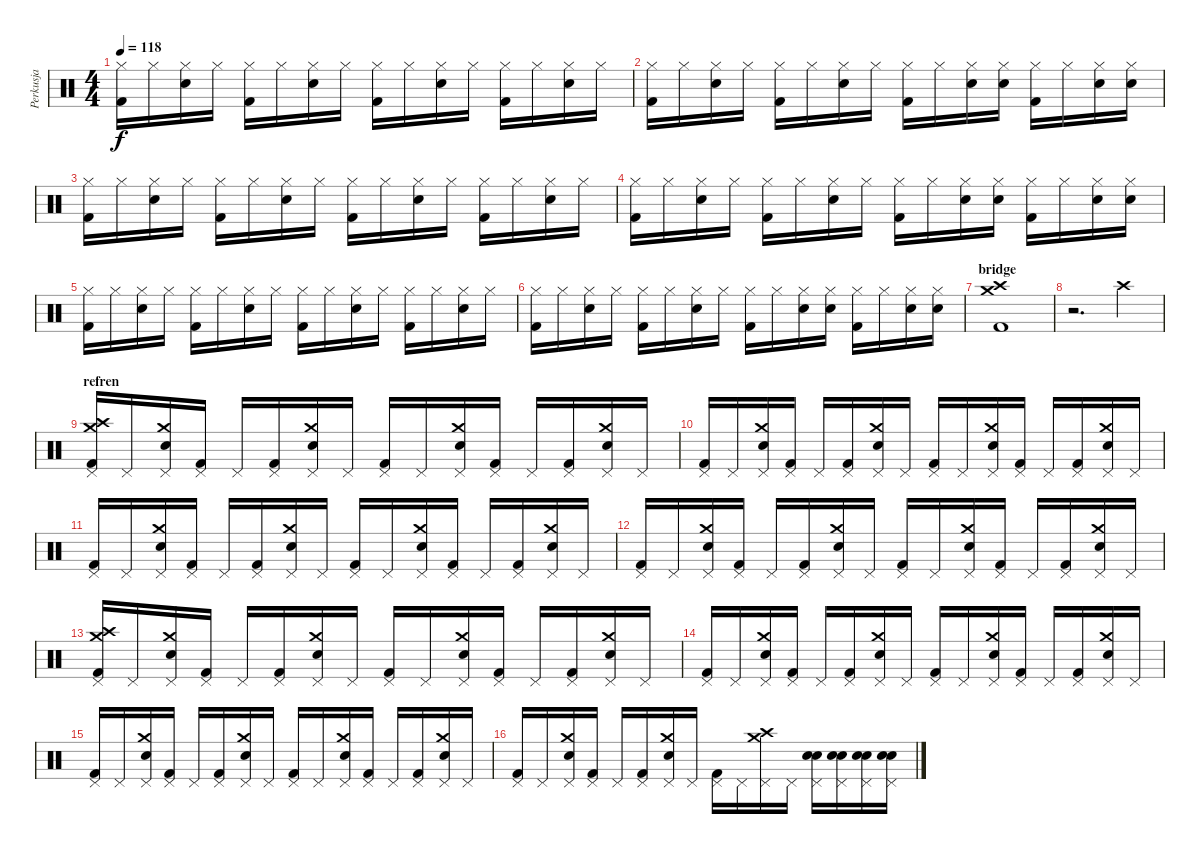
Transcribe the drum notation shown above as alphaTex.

\track ("Perkusja" "Perkusja") {instrument percussion}
\staff {score}
\articulation defaults
\ts (4 4)
\tempo 118
\clef neutral
\ks c
("Kick (hit) 2" "Hi-Hat (closed)").16{dy f} "Hi-Hat (closed)".16 ("Electric Snare (hit)" "Hi-Hat (closed)").16 "Hi-Hat (closed)".16 ("Kick (hit) 2" "Hi-Hat (closed)").16 "Hi-Hat (closed)".16 ("Electric Snare (hit)" "Hi-Hat (closed)").16 "Hi-Hat (closed)".16 ("Kick (hit) 2" "Hi-Hat (closed)").16 "Hi-Hat (closed)".16 ("Electric Snare (hit)" "Hi-Hat (closed)").16 "Hi-Hat (closed)".16 ("Kick (hit) 2" "Hi-Hat (closed)").16 "Hi-Hat (closed)".16 ("Electric Snare (hit)" "Hi-Hat (closed)").16 "Hi-Hat (closed)".16 |
("Kick (hit) 2" "Hi-Hat (closed)").16 "Hi-Hat (closed)".16 ("Electric Snare (hit)" "Hi-Hat (closed)").16 "Hi-Hat (closed)".16 ("Kick (hit) 2" "Hi-Hat (closed)").16 "Hi-Hat (closed)".16 ("Electric Snare (hit)" "Hi-Hat (closed)").16 "Hi-Hat (closed)".16 ("Kick (hit) 2" "Hi-Hat (closed)").16 "Hi-Hat (closed)".16 ("Electric Snare (hit)" "Hi-Hat (closed)").16 ("Electric Snare (hit)" "Hi-Hat (closed)").16 ("Kick (hit) 2" "Hi-Hat (closed)").16 "Hi-Hat (closed)".16 ("Electric Snare (hit)" "Hi-Hat (closed)").16 ("Electric Snare (hit)" "Hi-Hat (closed)").16 |
("Kick (hit) 2" "Hi-Hat (closed)").16 "Hi-Hat (closed)".16 ("Electric Snare (hit)" "Hi-Hat (closed)").16 "Hi-Hat (closed)".16 ("Kick (hit) 2" "Hi-Hat (closed)").16 "Hi-Hat (closed)".16 ("Electric Snare (hit)" "Hi-Hat (closed)").16 "Hi-Hat (closed)".16 ("Kick (hit) 2" "Hi-Hat (closed)").16 "Hi-Hat (closed)".16 ("Electric Snare (hit)" "Hi-Hat (closed)").16 "Hi-Hat (closed)".16 ("Kick (hit) 2" "Hi-Hat (closed)").16 "Hi-Hat (closed)".16 ("Electric Snare (hit)" "Hi-Hat (closed)").16 "Hi-Hat (closed)".16 |
("Kick (hit) 2" "Hi-Hat (closed)").16 "Hi-Hat (closed)".16 ("Electric Snare (hit)" "Hi-Hat (closed)").16 "Hi-Hat (closed)".16 ("Kick (hit) 2" "Hi-Hat (closed)").16 "Hi-Hat (closed)".16 ("Electric Snare (hit)" "Hi-Hat (closed)").16 "Hi-Hat (closed)".16 ("Kick (hit) 2" "Hi-Hat (closed)").16 "Hi-Hat (closed)".16 ("Electric Snare (hit)" "Hi-Hat (closed)").16 ("Electric Snare (hit)" "Hi-Hat (closed)").16 ("Kick (hit) 2" "Hi-Hat (closed)").16 "Hi-Hat (closed)".16 ("Electric Snare (hit)" "Hi-Hat (closed)").16 ("Electric Snare (hit)" "Hi-Hat (closed)").16 |
("Kick (hit) 2" "Hi-Hat (closed)").16 "Hi-Hat (closed)".16 ("Electric Snare (hit)" "Hi-Hat (closed)").16 "Hi-Hat (closed)".16 ("Kick (hit) 2" "Hi-Hat (closed)").16 "Hi-Hat (closed)".16 ("Electric Snare (hit)" "Hi-Hat (closed)").16 "Hi-Hat (closed)".16 ("Kick (hit) 2" "Hi-Hat (closed)").16 "Hi-Hat (closed)".16 ("Electric Snare (hit)" "Hi-Hat (closed)").16 "Hi-Hat (closed)".16 ("Kick (hit) 2" "Hi-Hat (closed)").16 "Hi-Hat (closed)".16 ("Electric Snare (hit)" "Hi-Hat (closed)").16 "Hi-Hat (closed)".16 |
("Kick (hit) 2" "Hi-Hat (closed)").16 "Hi-Hat (closed)".16 ("Electric Snare (hit)" "Hi-Hat (closed)").16 "Hi-Hat (closed)".16 ("Kick (hit) 2" "Hi-Hat (closed)").16 "Hi-Hat (closed)".16 ("Electric Snare (hit)" "Hi-Hat (closed)").16 "Hi-Hat (closed)".16 ("Kick (hit) 2" "Hi-Hat (closed)").16 "Hi-Hat (closed)".16 ("Electric Snare (hit)" "Hi-Hat (closed)").16 ("Electric Snare (hit)" "Hi-Hat (closed)").16 ("Kick (hit) 2" "Hi-Hat (closed)").16 "Hi-Hat (closed)".16 ("Electric Snare (hit)" "Hi-Hat (closed)").16 ("Electric Snare (hit)" "Hi-Hat (closed)").16 |
\section ("" "bridge")
("Crash medium (hit)" "Crash high (hit)" "Kick (hit) 2").1 |
r.2{d} "Crash high (hit)".4 |
\section ("" "refren")
("Crash medium (hit)" "Crash high (hit)" "Kick (hit) 2" "Pedal Hi-Hat (hit)").16 "Pedal Hi-Hat (hit)".16 ("Electric Snare (hit)" "Crash medium (hit)" "Pedal Hi-Hat (hit)").16 ("Kick (hit) 2" "Pedal Hi-Hat (hit)").16 "Pedal Hi-Hat (hit)".16 ("Kick (hit) 2" "Pedal Hi-Hat (hit)").16 ("Electric Snare (hit)" "Crash medium (hit)" "Pedal Hi-Hat (hit)").16 "Pedal Hi-Hat (hit)".16 ("Kick (hit) 2" "Pedal Hi-Hat (hit)").16 "Pedal Hi-Hat (hit)".16 ("Electric Snare (hit)" "Crash medium (hit)" "Pedal Hi-Hat (hit)").16 ("Kick (hit) 2" "Pedal Hi-Hat (hit)").16 "Pedal Hi-Hat (hit)".16 ("Kick (hit) 2" "Pedal Hi-Hat (hit)").16 ("Electric Snare (hit)" "Crash medium (hit)" "Pedal Hi-Hat (hit)").16 "Pedal Hi-Hat (hit)".16 |
("Kick (hit) 2" "Pedal Hi-Hat (hit)").16 "Pedal Hi-Hat (hit)".16 ("Electric Snare (hit)" "Crash medium (hit)" "Pedal Hi-Hat (hit)").16 ("Kick (hit) 2" "Pedal Hi-Hat (hit)").16 "Pedal Hi-Hat (hit)".16 ("Kick (hit) 2" "Pedal Hi-Hat (hit)").16 ("Electric Snare (hit)" "Crash medium (hit)" "Pedal Hi-Hat (hit)").16 "Pedal Hi-Hat (hit)".16 ("Kick (hit) 2" "Pedal Hi-Hat (hit)").16 "Pedal Hi-Hat (hit)".16 ("Electric Snare (hit)" "Crash medium (hit)" "Pedal Hi-Hat (hit)").16 ("Kick (hit) 2" "Pedal Hi-Hat (hit)").16 "Pedal Hi-Hat (hit)".16 ("Kick (hit) 2" "Pedal Hi-Hat (hit)").16 ("Electric Snare (hit)" "Crash medium (hit)" "Pedal Hi-Hat (hit)").16 "Pedal Hi-Hat (hit)".16 |
("Kick (hit) 2" "Pedal Hi-Hat (hit)").16 "Pedal Hi-Hat (hit)".16 ("Electric Snare (hit)" "Crash medium (hit)" "Pedal Hi-Hat (hit)").16 ("Kick (hit) 2" "Pedal Hi-Hat (hit)").16 "Pedal Hi-Hat (hit)".16 ("Kick (hit) 2" "Pedal Hi-Hat (hit)").16 ("Electric Snare (hit)" "Crash medium (hit)" "Pedal Hi-Hat (hit)").16 "Pedal Hi-Hat (hit)".16 ("Kick (hit) 2" "Pedal Hi-Hat (hit)").16 "Pedal Hi-Hat (hit)".16 ("Electric Snare (hit)" "Crash medium (hit)" "Pedal Hi-Hat (hit)").16 ("Kick (hit) 2" "Pedal Hi-Hat (hit)").16 "Pedal Hi-Hat (hit)".16 ("Kick (hit) 2" "Pedal Hi-Hat (hit)").16 ("Electric Snare (hit)" "Crash medium (hit)" "Pedal Hi-Hat (hit)").16 "Pedal Hi-Hat (hit)".16 |
("Kick (hit) 2" "Pedal Hi-Hat (hit)").16 "Pedal Hi-Hat (hit)".16 ("Electric Snare (hit)" "Crash medium (hit)" "Pedal Hi-Hat (hit)").16 ("Kick (hit) 2" "Pedal Hi-Hat (hit)").16 "Pedal Hi-Hat (hit)".16 ("Kick (hit) 2" "Pedal Hi-Hat (hit)").16 ("Electric Snare (hit)" "Crash medium (hit)" "Pedal Hi-Hat (hit)").16 "Pedal Hi-Hat (hit)".16 ("Kick (hit) 2" "Pedal Hi-Hat (hit)").16 "Pedal Hi-Hat (hit)".16 ("Electric Snare (hit)" "Crash medium (hit)" "Pedal Hi-Hat (hit)").16 ("Kick (hit) 2" "Pedal Hi-Hat (hit)").16 "Pedal Hi-Hat (hit)".16 ("Kick (hit) 2" "Pedal Hi-Hat (hit)").16 ("Electric Snare (hit)" "Crash medium (hit)" "Pedal Hi-Hat (hit)").16 "Pedal Hi-Hat (hit)".16 |
("Crash medium (hit)" "Crash high (hit)" "Kick (hit) 2" "Pedal Hi-Hat (hit)").16 "Pedal Hi-Hat (hit)".16 ("Electric Snare (hit)" "Crash medium (hit)" "Pedal Hi-Hat (hit)").16 ("Kick (hit) 2" "Pedal Hi-Hat (hit)").16 "Pedal Hi-Hat (hit)".16 ("Kick (hit) 2" "Pedal Hi-Hat (hit)").16 ("Electric Snare (hit)" "Crash medium (hit)" "Pedal Hi-Hat (hit)").16 "Pedal Hi-Hat (hit)".16 ("Kick (hit) 2" "Pedal Hi-Hat (hit)").16 "Pedal Hi-Hat (hit)".16 ("Electric Snare (hit)" "Crash medium (hit)" "Pedal Hi-Hat (hit)").16 ("Kick (hit) 2" "Pedal Hi-Hat (hit)").16 "Pedal Hi-Hat (hit)".16 ("Kick (hit) 2" "Pedal Hi-Hat (hit)").16 ("Electric Snare (hit)" "Crash medium (hit)" "Pedal Hi-Hat (hit)").16 "Pedal Hi-Hat (hit)".16 |
("Kick (hit) 2" "Pedal Hi-Hat (hit)").16 "Pedal Hi-Hat (hit)".16 ("Electric Snare (hit)" "Crash medium (hit)" "Pedal Hi-Hat (hit)").16 ("Kick (hit) 2" "Pedal Hi-Hat (hit)").16 "Pedal Hi-Hat (hit)".16 ("Kick (hit) 2" "Pedal Hi-Hat (hit)").16 ("Electric Snare (hit)" "Crash medium (hit)" "Pedal Hi-Hat (hit)").16 "Pedal Hi-Hat (hit)".16 ("Kick (hit) 2" "Pedal Hi-Hat (hit)").16 "Pedal Hi-Hat (hit)".16 ("Electric Snare (hit)" "Crash medium (hit)" "Pedal Hi-Hat (hit)").16 ("Kick (hit) 2" "Pedal Hi-Hat (hit)").16 "Pedal Hi-Hat (hit)".16 ("Kick (hit) 2" "Pedal Hi-Hat (hit)").16 ("Electric Snare (hit)" "Crash medium (hit)" "Pedal Hi-Hat (hit)").16 "Pedal Hi-Hat (hit)".16 |
("Kick (hit) 2" "Pedal Hi-Hat (hit)").16 "Pedal Hi-Hat (hit)".16 ("Electric Snare (hit)" "Crash medium (hit)" "Pedal Hi-Hat (hit)").16 ("Kick (hit) 2" "Pedal Hi-Hat (hit)").16 "Pedal Hi-Hat (hit)".16 ("Kick (hit) 2" "Pedal Hi-Hat (hit)").16 ("Electric Snare (hit)" "Crash medium (hit)" "Pedal Hi-Hat (hit)").16 "Pedal Hi-Hat (hit)".16 ("Kick (hit) 2" "Pedal Hi-Hat (hit)").16 "Pedal Hi-Hat (hit)".16 ("Electric Snare (hit)" "Crash medium (hit)" "Pedal Hi-Hat (hit)").16 ("Kick (hit) 2" "Pedal Hi-Hat (hit)").16 "Pedal Hi-Hat (hit)".16 ("Kick (hit) 2" "Pedal Hi-Hat (hit)").16 ("Electric Snare (hit)" "Crash medium (hit)" "Pedal Hi-Hat (hit)").16 "Pedal Hi-Hat (hit)".16 |
("Kick (hit) 2" "Pedal Hi-Hat (hit)").16 "Pedal Hi-Hat (hit)".16 ("Electric Snare (hit)" "Crash medium (hit)" "Pedal Hi-Hat (hit)").16 ("Kick (hit) 2" "Pedal Hi-Hat (hit)").16 "Pedal Hi-Hat (hit)".16 ("Kick (hit) 2" "Pedal Hi-Hat (hit)").16 ("Electric Snare (hit)" "Crash medium (hit)" "Pedal Hi-Hat (hit)").16 "Pedal Hi-Hat (hit)".16 ("Kick (hit) 2" "Pedal Hi-Hat (hit)").16 "Pedal Hi-Hat (hit)".16 ("Crash high (hit)" "Crash medium (hit)" "Pedal Hi-Hat (hit)").16 "Pedal Hi-Hat (hit)".16 ("Electric Snare (hit)" "Snare (hit) 2" "Pedal Hi-Hat (hit)").16 ("Electric Snare (hit)" "Snare (hit) 2" "Pedal Hi-Hat (hit)").16 ("Electric Snare (hit)" "Snare (hit) 2" "Pedal Hi-Hat (hit)").16 ("Electric Snare (hit)" "Snare (hit) 2" "Pedal Hi-Hat (hit)").16
